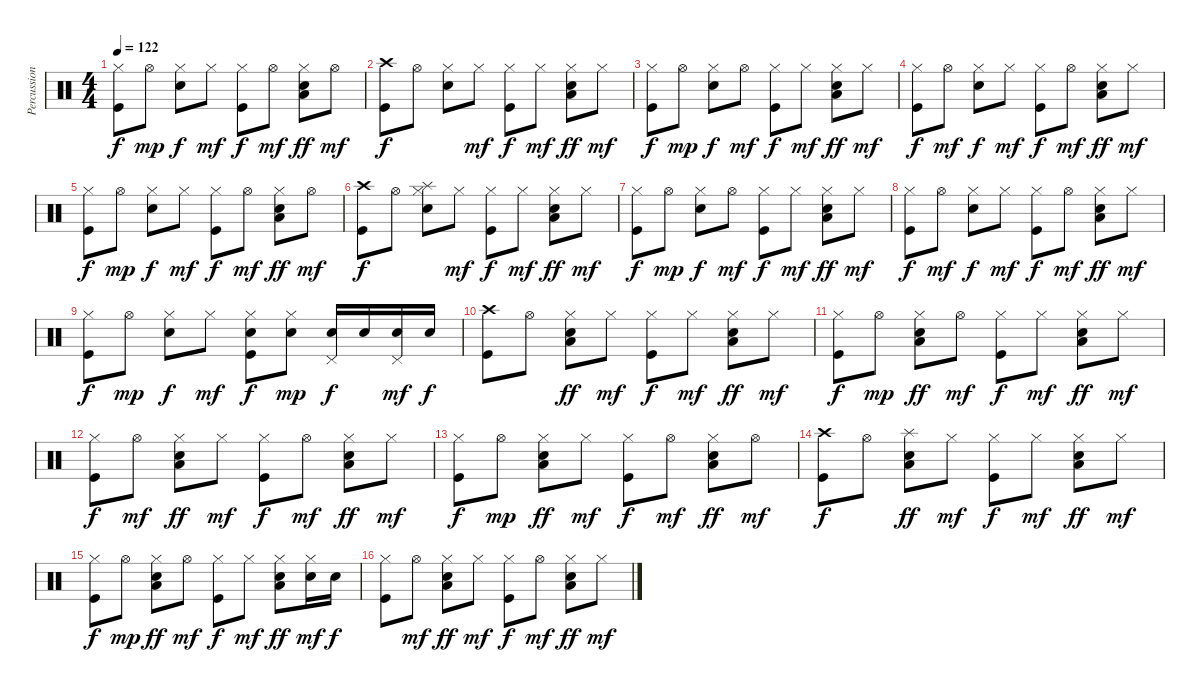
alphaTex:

\track ("Percussion" "Percussion") {instrument percussion}
\staff {score}
\articulation defaults
\ts (4 4)
\tempo 122
\clef neutral
\ks c
("Hi-Hat (closed)" "Kick (hit)").8{dy f} "Hi-Hat (open)".8{dy mp} ("Hi-Hat (closed)" "Snare (hit) 2").8{dy f} "Hi-Hat (closed)".8{dy mf} ("Hi-Hat (closed)" "Kick (hit)").8{dy f} "Hi-Hat (open)".8{dy mf} ("Low Floor Tom (hit)" "Hi-Hat (closed)" "Snare (hit) 2").8{dy ff} "Hi-Hat (open)".8{dy mf} |
("Crash high (hit)" "Kick (hit)").8{dy f} "Hi-Hat (open)".8 ("Hi-Hat (closed)" "Snare (hit) 2").8 "Hi-Hat (closed)".8{dy mf} ("Hi-Hat (closed)" "Kick (hit)").8{dy f} "Hi-Hat (closed)".8{dy mf} ("Low Floor Tom (hit)" "Hi-Hat (closed)" "Snare (hit) 2").8{dy ff} "Hi-Hat (closed)".8{dy mf} |
("Hi-Hat (closed)" "Kick (hit)").8{dy f} "Hi-Hat (open)".8{dy mp} ("Hi-Hat (closed)" "Snare (hit) 2").8{dy f} "Hi-Hat (open)".8{dy mf} ("Hi-Hat (closed)" "Kick (hit)").8{dy f} "Hi-Hat (closed)".8{dy mf} ("Low Floor Tom (hit)" "Hi-Hat (closed)" "Snare (hit) 2").8{dy ff} "Hi-Hat (closed)".8{dy mf} |
("Hi-Hat (closed)" "Kick (hit)").8{dy f} "Hi-Hat (open)".8{dy mf} ("Hi-Hat (closed)" "Snare (hit) 2").8{dy f} "Hi-Hat (closed)".8{dy mf} ("Hi-Hat (closed)" "Kick (hit)").8{dy f} "Hi-Hat (open)".8{dy mf} ("Low Floor Tom (hit)" "Hi-Hat (closed)" "Snare (hit) 2").8{dy ff} "Hi-Hat (closed)".8{dy mf} |
("Hi-Hat (closed)" "Kick (hit)").8{dy f} "Hi-Hat (open)".8{dy mp} ("Hi-Hat (closed)" "Snare (hit) 2").8{dy f} "Hi-Hat (closed)".8{dy mf} ("Hi-Hat (closed)" "Kick (hit)").8{dy f} "Hi-Hat (open)".8{dy mf} ("Low Floor Tom (hit)" "Hi-Hat (closed)" "Snare (hit) 2").8{dy ff} "Hi-Hat (open)".8{dy mf} |
("Crash high (hit)" "Kick (hit)").8{dy f} "Hi-Hat (open)".8 ("Splash (hit)" "Hi-Hat (closed)" "Snare (hit) 2").8 "Hi-Hat (closed)".8{dy mf} ("Hi-Hat (closed)" "Kick (hit)").8{dy f} "Hi-Hat (closed)".8{dy mf} ("Low Floor Tom (hit)" "Hi-Hat (closed)" "Snare (hit) 2").8{dy ff} "Hi-Hat (closed)".8{dy mf} |
("Hi-Hat (closed)" "Kick (hit)").8{dy f} "Hi-Hat (open)".8{dy mp} ("Hi-Hat (closed)" "Snare (hit) 2").8{dy f} "Hi-Hat (open)".8{dy mf} ("Hi-Hat (closed)" "Kick (hit)").8{dy f} "Hi-Hat (closed)".8{dy mf} ("Low Floor Tom (hit)" "Hi-Hat (closed)" "Snare (hit) 2").8{dy ff} "Hi-Hat (closed)".8{dy mf} |
("Hi-Hat (closed)" "Kick (hit)").8{dy f} "Hi-Hat (open)".8{dy mf} ("Hi-Hat (closed)" "Snare (hit) 2").8{dy f} "Hi-Hat (closed)".8{dy mf} ("Hi-Hat (closed)" "Kick (hit)").8{dy f} "Hi-Hat (open)".8{dy mf} ("Low Floor Tom (hit)" "Hi-Hat (closed)" "Snare (hit) 2").8{dy ff} "Hi-Hat (closed)".8{dy mf} |
("Hi-Hat (closed)" "Kick (hit)").8{dy f} "Hi-Hat (open)".8{dy mp} ("Hi-Hat (closed)" "Snare (hit) 2").8{dy f} "Hi-Hat (closed)".8{dy mf} ("Hi-Hat (closed)" "Snare (hit) 2" "Kick (hit)").8{dy f} ("Hi-Hat (closed)" "Snare (hit) 2").8{dy mp} ("Pedal Hi-Hat (hit)" "Snare (hit) 2").16{dy f} "Snare (hit) 2".16 ("Pedal Hi-Hat (hit)" "Snare (hit) 2").16{dy mf} "Snare (hit) 2".16{dy f} |
("Crash high (hit)" "Kick (hit)").8 "Hi-Hat (open)".8 ("Low Floor Tom (hit)" "Hi-Hat (closed)" "Snare (hit) 2").8{dy ff} "Hi-Hat (closed)".8{dy mf} ("Hi-Hat (closed)" "Kick (hit)").8{dy f} "Hi-Hat (closed)".8{dy mf} ("Low Floor Tom (hit)" "Hi-Hat (closed)" "Snare (hit) 2").8{dy ff} "Hi-Hat (closed)".8{dy mf} |
("Hi-Hat (closed)" "Kick (hit)").8{dy f} "Hi-Hat (open)".8{dy mp} ("Low Floor Tom (hit)" "Hi-Hat (closed)" "Snare (hit) 2").8{dy ff} "Hi-Hat (open)".8{dy mf} ("Hi-Hat (closed)" "Kick (hit)").8{dy f} "Hi-Hat (closed)".8{dy mf} ("Low Floor Tom (hit)" "Hi-Hat (closed)" "Snare (hit) 2").8{dy ff} "Hi-Hat (closed)".8{dy mf} |
("Hi-Hat (closed)" "Kick (hit)").8{dy f} "Hi-Hat (open)".8{dy mf} ("Low Floor Tom (hit)" "Hi-Hat (closed)" "Snare (hit) 2").8{dy ff} "Hi-Hat (closed)".8{dy mf} ("Hi-Hat (closed)" "Kick (hit)").8{dy f} "Hi-Hat (open)".8{dy mf} ("Low Floor Tom (hit)" "Hi-Hat (closed)" "Snare (hit) 2").8{dy ff} "Hi-Hat (closed)".8{dy mf} |
("Hi-Hat (closed)" "Kick (hit)").8{dy f} "Hi-Hat (open)".8{dy mp} ("Low Floor Tom (hit)" "Hi-Hat (closed)" "Snare (hit) 2").8{dy ff} "Hi-Hat (closed)".8{dy mf} ("Hi-Hat (closed)" "Kick (hit)").8{dy f} "Hi-Hat (open)".8{dy mf} ("Low Floor Tom (hit)" "Hi-Hat (closed)" "Snare (hit) 2").8{dy ff} "Hi-Hat (open)".8{dy mf} |
("Crash high (hit)" "Kick (hit)").8{dy f} "Hi-Hat (open)".8 ("Splash (hit)" "Low Floor Tom (hit)" "Snare (hit) 2").8{dy ff} "Hi-Hat (closed)".8{dy mf} ("Hi-Hat (closed)" "Kick (hit)").8{dy f} "Hi-Hat (closed)".8{dy mf} ("Low Floor Tom (hit)" "Hi-Hat (closed)" "Snare (hit) 2").8{dy ff} "Hi-Hat (closed)".8{dy mf} |
("Hi-Hat (closed)" "Kick (hit)").8{dy f} "Hi-Hat (open)".8{dy mp} ("Low Floor Tom (hit)" "Hi-Hat (closed)" "Snare (hit) 2").8{dy ff} "Hi-Hat (open)".8{dy mf} ("Hi-Hat (closed)" "Kick (hit)").8{dy f} "Hi-Hat (closed)".8{dy mf} ("Low Floor Tom (hit)" "Hi-Hat (closed)" "Snare (hit) 2").8{dy ff} ("Hi-Hat (closed)" "Snare (hit) 2").16{dy mf} "Snare (hit) 2".16{dy f} |
("Hi-Hat (closed)" "Kick (hit)").8 "Hi-Hat (open)".8{dy mf} ("Low Floor Tom (hit)" "Hi-Hat (closed)" "Snare (hit) 2").8{dy ff} "Hi-Hat (closed)".8{dy mf} ("Hi-Hat (closed)" "Kick (hit)").8{dy f} "Hi-Hat (open)".8{dy mf} ("Low Floor Tom (hit)" "Hi-Hat (closed)" "Snare (hit) 2").8{dy ff} "Hi-Hat (closed)".8{dy mf}
